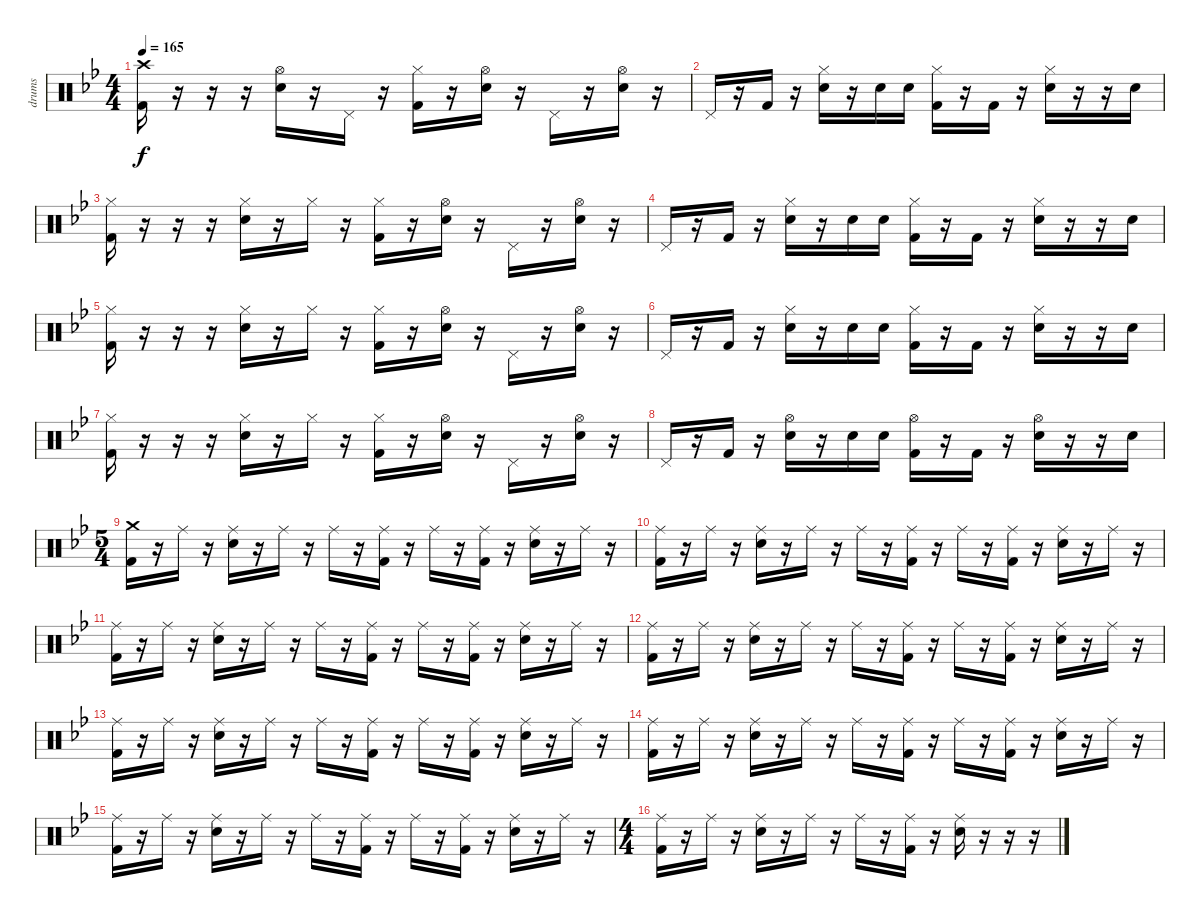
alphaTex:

\track ("drums" "drums") {instrument percussion}
\staff {score}
\articulation defaults
\ts (4 4)
\tempo 165
\clef neutral
\ks bb
("Crash high (hit)" "Kick (hit) 2").16{dy f} r.16 r.16 r.16 ("Hi-Hat (open)" "Snare (hit) 2").16 r.16 "Pedal Hi-Hat (hit)".16 r.16 ("Hi-Hat (closed)" "Kick (hit) 2").16 r.16 ("Hi-Hat (open)" "Snare (hit) 2").16 r.16 "Pedal Hi-Hat (hit)".16 r.16 ("Hi-Hat (open)" "Snare (hit) 2").16 r.16 |
"Pedal Hi-Hat (hit)".16 r.16 "Kick (hit) 2".16 r.16 ("Hi-Hat (closed)" "Snare (hit) 2").16 r.16 "Snare (hit) 2".16 "Snare (hit) 2".16 ("Hi-Hat (closed)" "Kick (hit) 2").16 r.16 "Kick (hit) 2".16 r.16 ("Hi-Hat (closed)" "Snare (hit) 2").16 r.16 r.16 "Snare (hit) 2".16 |
("Hi-Hat (closed)" "Kick (hit) 2").16 r.16 r.16 r.16 ("Hi-Hat (closed)" "Snare (hit) 2").16 r.16 "Hi-Hat (closed)".16 r.16 ("Hi-Hat (closed)" "Kick (hit) 2").16 r.16 ("Hi-Hat (open)" "Snare (hit) 2").16 r.16 "Pedal Hi-Hat (hit)".16 r.16 ("Hi-Hat (open)" "Snare (hit) 2").16 r.16 |
"Pedal Hi-Hat (hit)".16 r.16 "Kick (hit) 2".16 r.16 ("Hi-Hat (closed)" "Snare (hit) 2").16 r.16 "Snare (hit) 2".16 "Snare (hit) 2".16 ("Hi-Hat (closed)" "Kick (hit) 2").16 r.16 "Kick (hit) 2".16 r.16 ("Hi-Hat (closed)" "Snare (hit) 2").16 r.16 r.16 "Snare (hit) 2".16 |
("Hi-Hat (closed)" "Kick (hit) 2").16 r.16 r.16 r.16 ("Hi-Hat (closed)" "Snare (hit) 2").16 r.16 "Hi-Hat (closed)".16 r.16 ("Hi-Hat (closed)" "Kick (hit) 2").16 r.16 ("Hi-Hat (open)" "Snare (hit) 2").16 r.16 "Pedal Hi-Hat (hit)".16 r.16 ("Hi-Hat (open)" "Snare (hit) 2").16 r.16 |
"Pedal Hi-Hat (hit)".16 r.16 "Kick (hit) 2".16 r.16 ("Hi-Hat (closed)" "Snare (hit) 2").16 r.16 "Snare (hit) 2".16 "Snare (hit) 2".16 ("Hi-Hat (closed)" "Kick (hit) 2").16 r.16 "Kick (hit) 2".16 r.16 ("Hi-Hat (closed)" "Snare (hit) 2").16 r.16 r.16 "Snare (hit) 2".16 |
("Hi-Hat (closed)" "Kick (hit) 2").16 r.16 r.16 r.16 ("Hi-Hat (closed)" "Snare (hit) 2").16 r.16 "Hi-Hat (closed)".16 r.16 ("Hi-Hat (closed)" "Kick (hit) 2").16 r.16 ("Hi-Hat (open)" "Snare (hit) 2").16 r.16 "Pedal Hi-Hat (hit)".16 r.16 ("Hi-Hat (open)" "Snare (hit) 2").16 r.16 |
"Pedal Hi-Hat (hit)".16 r.16 "Kick (hit) 2".16 r.16 ("Hi-Hat (open)" "Snare (hit) 2").16 r.16 "Snare (hit) 2".16 "Snare (hit) 2".16 ("Hi-Hat (open)" "Kick (hit) 2").16 r.16 "Kick (hit) 2".16 r.16 ("Hi-Hat (open)" "Snare (hit) 2").16 r.16 r.16 "Snare (hit) 2".16 |
\ts (5 4)
("Crash medium (hit)" "Kick (hit) 2").16 r.16 "Ride (middle)".16 r.16 ("Ride (middle)" "Snare (hit) 2").16 r.16 "Ride (middle)".16 r.16 "Ride (middle)".16 r.16 ("Ride (middle)" "Kick (hit) 2").16 r.16 "Ride (middle)".16 r.16 ("Ride (middle)" "Kick (hit) 2").16 r.16 ("Ride (middle)" "Snare (hit) 2").16 r.16 "Ride (middle)".16 r.16 |
("Ride (middle)" "Kick (hit) 2").16 r.16 "Ride (middle)".16 r.16 ("Ride (middle)" "Snare (hit) 2").16 r.16 "Ride (middle)".16 r.16 "Ride (middle)".16 r.16 ("Ride (middle)" "Kick (hit) 2").16 r.16 "Ride (middle)".16 r.16 ("Ride (middle)" "Kick (hit) 2").16 r.16 ("Ride (middle)" "Snare (hit) 2").16 r.16 "Ride (middle)".16 r.16 |
("Ride (middle)" "Kick (hit) 2").16 r.16 "Ride (middle)".16 r.16 ("Ride (middle)" "Snare (hit) 2").16 r.16 "Ride (middle)".16 r.16 "Ride (middle)".16 r.16 ("Ride (middle)" "Kick (hit) 2").16 r.16 "Ride (middle)".16 r.16 ("Ride (middle)" "Kick (hit) 2").16 r.16 ("Ride (middle)" "Snare (hit) 2").16 r.16 "Ride (middle)".16 r.16 |
("Ride (middle)" "Kick (hit) 2").16 r.16 "Ride (middle)".16 r.16 ("Ride (middle)" "Snare (hit) 2").16 r.16 "Ride (middle)".16 r.16 "Ride (middle)".16 r.16 ("Ride (middle)" "Kick (hit) 2").16 r.16 "Ride (middle)".16 r.16 ("Ride (middle)" "Kick (hit) 2").16 r.16 ("Ride (middle)" "Snare (hit) 2").16 r.16 "Ride (middle)".16 r.16 |
("Ride (middle)" "Kick (hit) 2").16 r.16 "Ride (middle)".16 r.16 ("Ride (middle)" "Snare (hit) 2").16 r.16 "Ride (middle)".16 r.16 "Ride (middle)".16 r.16 ("Ride (middle)" "Kick (hit) 2").16 r.16 "Ride (middle)".16 r.16 ("Ride (middle)" "Kick (hit) 2").16 r.16 ("Ride (middle)" "Snare (hit) 2").16 r.16 "Ride (middle)".16 r.16 |
("Ride (middle)" "Kick (hit) 2").16 r.16 "Ride (middle)".16 r.16 ("Ride (middle)" "Snare (hit) 2").16 r.16 "Ride (middle)".16 r.16 "Ride (middle)".16 r.16 ("Ride (middle)" "Kick (hit) 2").16 r.16 "Ride (middle)".16 r.16 ("Ride (middle)" "Kick (hit) 2").16 r.16 ("Ride (middle)" "Snare (hit) 2").16 r.16 "Ride (middle)".16 r.16 |
("Ride (middle)" "Kick (hit) 2").16 r.16 "Ride (middle)".16 r.16 ("Ride (middle)" "Snare (hit) 2").16 r.16 "Ride (middle)".16 r.16 "Ride (middle)".16 r.16 ("Ride (middle)" "Kick (hit) 2").16 r.16 "Ride (middle)".16 r.16 ("Ride (middle)" "Kick (hit) 2").16 r.16 ("Ride (middle)" "Snare (hit) 2").16 r.16 "Ride (middle)".16 r.16 |
\ts (4 4)
("Ride (middle)" "Kick (hit) 2").16 r.16 "Ride (middle)".16 r.16 ("Ride (middle)" "Snare (hit) 2").16 r.16 "Ride (middle)".16 r.16 "Ride (middle)".16 r.16 ("Ride (middle)" "Kick (hit) 2").16 r.16 ("Ride (middle)" "Snare (hit) 2").16 r.16 r.16 r.16
